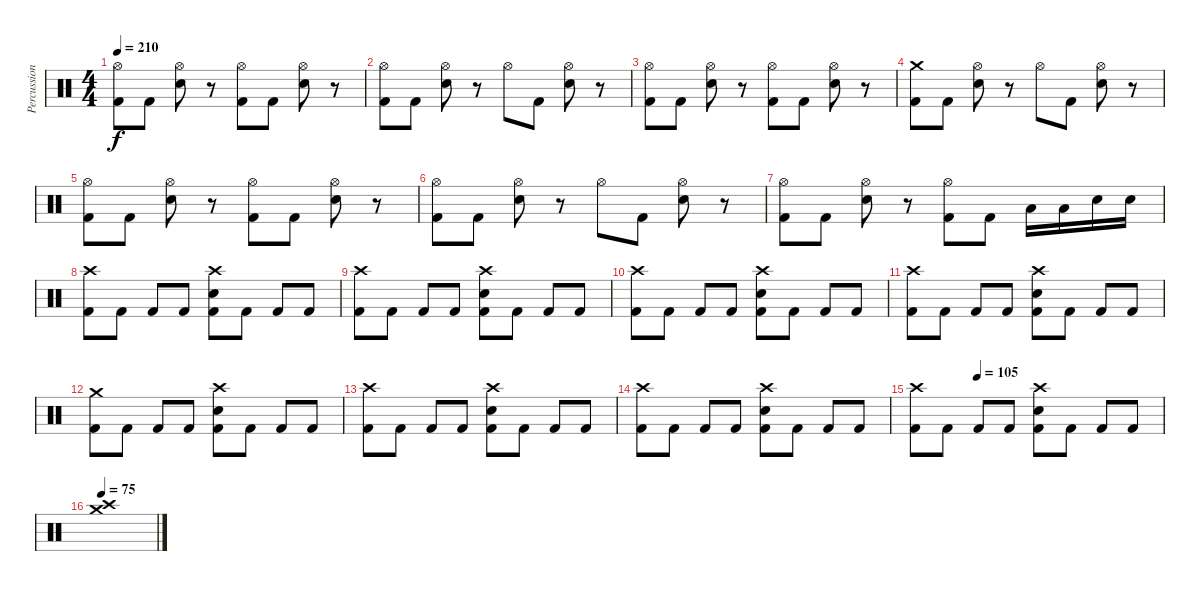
\track ("Percussion" "Percussion") {instrument percussion}
\staff {score}
\articulation defaults
\ts (4 4)
\tempo 210
\clef neutral
\ks c
("Hi-Hat (open)" "Kick (hit) 2").8{dy f} "Kick (hit) 2".8 ("Hi-Hat (open)" "Electric Snare (hit)").8 r.8 ("Hi-Hat (open)" "Kick (hit) 2").8 "Kick (hit) 2".8 ("Hi-Hat (open)" "Electric Snare (hit)").8 r.8 |
("Hi-Hat (open)" "Kick (hit) 2").8 "Kick (hit) 2".8 ("Hi-Hat (open)" "Electric Snare (hit)").8 r.8 "Hi-Hat (open)".8 "Kick (hit) 2".8 ("Hi-Hat (open)" "Electric Snare (hit)").8 r.8 |
("Hi-Hat (open)" "Kick (hit) 2").8 "Kick (hit) 2".8 ("Hi-Hat (open)" "Electric Snare (hit)").8 r.8 ("Hi-Hat (open)" "Kick (hit) 2").8 "Kick (hit) 2".8 ("Hi-Hat (open)" "Electric Snare (hit)").8 r.8 |
("Crash medium (hit)" "Kick (hit) 2").8 "Kick (hit) 2".8 ("Hi-Hat (open)" "Electric Snare (hit)").8 r.8 "Hi-Hat (open)".8 "Kick (hit) 2".8 ("Hi-Hat (open)" "Electric Snare (hit)").8 r.8 |
("Hi-Hat (open)" "Kick (hit) 2").8 "Kick (hit) 2".8 ("Hi-Hat (open)" "Electric Snare (hit)").8 r.8 ("Hi-Hat (open)" "Kick (hit) 2").8 "Kick (hit) 2".8 ("Hi-Hat (open)" "Electric Snare (hit)").8 r.8 |
("Hi-Hat (open)" "Kick (hit) 2").8 "Kick (hit) 2".8 ("Hi-Hat (open)" "Electric Snare (hit)").8 r.8 "Hi-Hat (open)".8 "Kick (hit) 2".8 ("Hi-Hat (open)" "Electric Snare (hit)").8 r.8 |
("Hi-Hat (open)" "Kick (hit) 2").8 "Kick (hit) 2".8 ("Hi-Hat (open)" "Electric Snare (hit)").8 r.8 ("Hi-Hat (open)" "Kick (hit) 2").8 "Kick (hit) 2".8 "Low Tom (hit)".16 "Low Tom (hit)".16 "Electric Snare (hit)".16 "Electric Snare (hit)".16 |
("Crash high (hit)" "Kick (hit) 2").8 "Kick (hit) 2".8 "Kick (hit) 2".8 "Kick (hit) 2".8 ("Crash high (hit)" "Electric Snare (hit)" "Kick (hit) 2").8 "Kick (hit) 2".8 "Kick (hit) 2".8 "Kick (hit) 2".8 |
("Crash high (hit)" "Kick (hit) 2").8 "Kick (hit) 2".8 "Kick (hit) 2".8 "Kick (hit) 2".8 ("Crash high (hit)" "Electric Snare (hit)" "Kick (hit) 2").8 "Kick (hit) 2".8 "Kick (hit) 2".8 "Kick (hit) 2".8 |
("Crash high (hit)" "Kick (hit) 2").8 "Kick (hit) 2".8 "Kick (hit) 2".8 "Kick (hit) 2".8 ("Crash high (hit)" "Electric Snare (hit)" "Kick (hit) 2").8 "Kick (hit) 2".8 "Kick (hit) 2".8 "Kick (hit) 2".8 |
("Crash high (hit)" "Kick (hit) 2").8 "Kick (hit) 2".8 "Kick (hit) 2".8 "Kick (hit) 2".8 ("Crash high (hit)" "Electric Snare (hit)" "Kick (hit) 2").8 "Kick (hit) 2".8 "Kick (hit) 2".8 "Kick (hit) 2".8 |
("Crash medium (hit)" "Kick (hit) 2").8 "Kick (hit) 2".8 "Kick (hit) 2".8 "Kick (hit) 2".8 ("Crash high (hit)" "Electric Snare (hit)" "Kick (hit) 2").8 "Kick (hit) 2".8 "Kick (hit) 2".8 "Kick (hit) 2".8 |
("Crash high (hit)" "Kick (hit) 2").8 "Kick (hit) 2".8 "Kick (hit) 2".8 "Kick (hit) 2".8 ("Crash high (hit)" "Electric Snare (hit)" "Kick (hit) 2").8 "Kick (hit) 2".8 "Kick (hit) 2".8 "Kick (hit) 2".8 |
("Crash high (hit)" "Kick (hit) 2").8 "Kick (hit) 2".8 "Kick (hit) 2".8 "Kick (hit) 2".8 ("Crash high (hit)" "Electric Snare (hit)" "Kick (hit) 2").8 "Kick (hit) 2".8 "Kick (hit) 2".8 "Kick (hit) 2".8 |
\tempo (105 0.25)
("Crash high (hit)" "Kick (hit) 2").8 "Kick (hit) 2".8 "Kick (hit) 2".8 "Kick (hit) 2".8 ("Crash high (hit)" "Electric Snare (hit)" "Kick (hit) 2").8 "Kick (hit) 2".8 "Kick (hit) 2".8 "Kick (hit) 2".8 |
\tempo 75
("Crash high (hit)" "Crash medium (hit)").1
